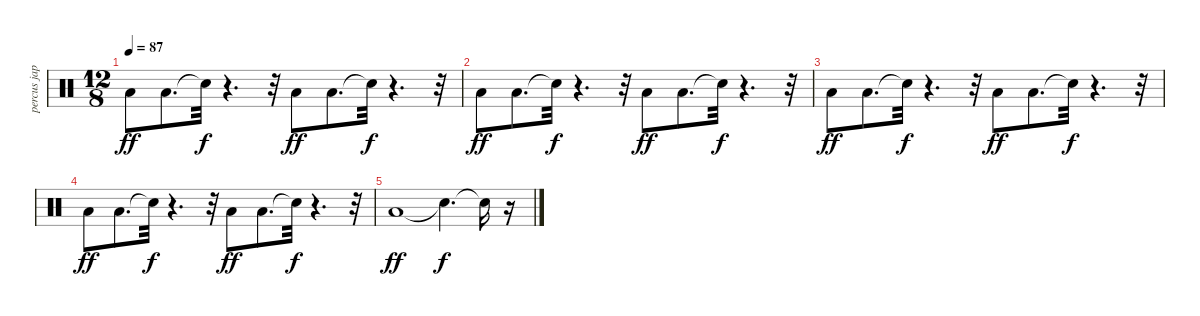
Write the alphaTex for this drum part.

\track ("percus jap" "percus jap") {instrument percussion}
\staff {score}
\articulation defaults
\ts (12 8)
\tempo 87
\clef neutral
\ks c "Low Tom (hit)".8{dy ff} "Low Tom (hit)".8{d} "Snare (hit)"{t}.32{dy f}
r.4{d} r.32 "Low Tom (hit)".8{dy ff} "Low Tom (hit)".8{d} "Snare (hit)"{t}.32{dy f} r.4{d} r.32 |
"Low Tom (hit)".8{dy ff} "Low Tom (hit)".8{d} "Snare (hit)"{t}.32{dy f} r.4{d} r.32 "Low Tom (hit)".8{dy ff} "Low Tom (hit)".8{d} "Snare (hit)"{t}.32{dy f} r.4{d} r.32 |
"Low Tom (hit)".8{dy ff} "Low Tom (hit)".8{d} "Snare (hit)"{t}.32{dy f} r.4{d} r.32 "Low Tom (hit)".8{dy ff} "Low Tom (hit)".8{d} "Snare (hit)"{t}.32{dy f} r.4{d} r.32 |
"Low Tom (hit)".8{dy ff} "Low Tom (hit)".8{d} "Snare (hit)"{t}.32{dy f} r.4{d} r.32 "Low Tom (hit)".8{dy ff} "Low Tom (hit)".8{d} "Snare (hit)"{t}.32{dy f} r.4{d} r.32 |
"Low Tom (hit)".1{dy ff} "Snare (hit)"{t}.4{d dy f} "Snare (hit)"{t}.16 r.16
